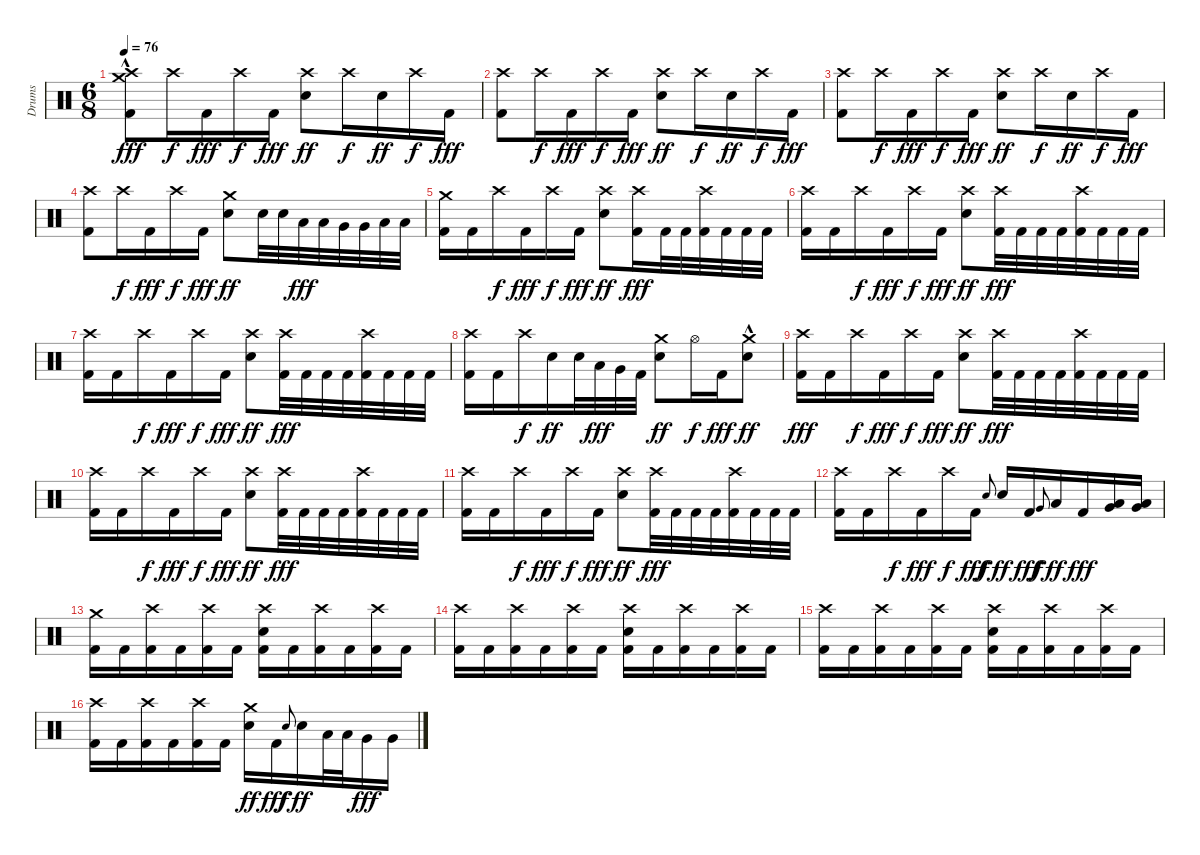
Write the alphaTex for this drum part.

\track ("Drums" "Drums") {instrument percussion}
\staff {score}
\articulation defaults
\ts (6 8)
\tempo 76
\clef neutral
\ks c
("Crash medium (hit)"{hac} "Crash high (hit)"{hac} "Kick (hit) 2"{hac}).8{dy fff} "Crash high (hit)".16{dy f} "Kick (hit) 2".16{dy fff} "Crash high (hit)".16{dy f} "Kick (hit) 2".16{dy fff} ("Crash high (hit)" "Snare (hit) 2").8{dy ff} "Crash high (hit)".16{dy f} "Snare (hit) 2".16{dy ff} "Crash high (hit)".16{dy f} "Kick (hit) 2".16{dy fff} |
("Crash high (hit)" "Kick (hit) 2").8 "Crash high (hit)".16{dy f} "Kick (hit) 2".16{dy fff} "Crash high (hit)".16{dy f} "Kick (hit) 2".16{dy fff} ("Crash high (hit)" "Snare (hit) 2").8{dy ff} "Crash high (hit)".16{dy f} "Snare (hit) 2".16{dy ff} "Crash high (hit)".16{dy f} "Kick (hit) 2".16{dy fff} |
("Crash high (hit)" "Kick (hit) 2").8 "Crash high (hit)".16{dy f} "Kick (hit) 2".16{dy fff} "Crash high (hit)".16{dy f} "Kick (hit) 2".16{dy fff} ("Crash high (hit)" "Snare (hit) 2").8{dy ff} "Crash high (hit)".16{dy f} "Snare (hit) 2".16{dy ff} "Crash high (hit)".16{dy f} "Kick (hit) 2".16{dy fff} |
("Crash high (hit)" "Kick (hit) 2").8 "Crash high (hit)".16{dy f} "Kick (hit) 2".16{dy fff} "Crash high (hit)".16{dy f} "Kick (hit) 2".16{dy fff} ("Crash medium (hit)" "Snare (hit) 2").8{dy ff} "Snare (hit) 2".32 "Snare (hit) 2".32 "Low Tom (hit)".32{dy fff} "Low Tom (hit)".32 "Very Low Tom (hit)".32 "Very Low Tom (hit)".32 "Low Floor Tom (hit)".32 "Low Floor Tom (hit)".32 |
("Crash medium (hit)" "Kick (hit) 2").16 "Kick (hit) 2".16 "Crash high (hit)".16{dy f} "Kick (hit) 2".16{dy fff} "Crash high (hit)".16{dy f} "Kick (hit) 2".16{dy fff} ("Crash high (hit)" "Snare (hit) 2").8{dy ff} ("Crash high (hit)" "Kick (hit) 2").16{dy fff} "Kick (hit) 2".32 "Kick (hit) 2".32 ("Crash high (hit)" "Kick (hit) 2").32 "Kick (hit) 2".32 "Kick (hit) 2".32 "Kick (hit) 2".32 |
("Crash high (hit)" "Kick (hit) 2").16 "Kick (hit) 2".16 "Crash high (hit)".16{dy f} "Kick (hit) 2".16{dy fff} "Crash high (hit)".16{dy f} "Kick (hit) 2".16{dy fff} ("Crash high (hit)" "Snare (hit) 2").8{dy ff} ("Crash high (hit)" "Kick (hit) 2").32{dy fff} "Kick (hit) 2".32 "Kick (hit) 2".32 "Kick (hit) 2".32 ("Crash high (hit)" "Kick (hit) 2").32 "Kick (hit) 2".32 "Kick (hit) 2".32 "Kick (hit) 2".32 |
("Crash high (hit)" "Kick (hit) 2").16 "Kick (hit) 2".16 "Crash high (hit)".16{dy f} "Kick (hit) 2".16{dy fff} "Crash high (hit)".16{dy f} "Kick (hit) 2".16{dy fff} ("Crash high (hit)" "Snare (hit) 2").8{dy ff} ("Crash high (hit)" "Kick (hit) 2").32{dy fff} "Kick (hit) 2".32 "Kick (hit) 2".32 "Kick (hit) 2".32 ("Crash high (hit)" "Kick (hit) 2").32 "Kick (hit) 2".32 "Kick (hit) 2".32 "Kick (hit) 2".32 |
("Crash high (hit)" "Kick (hit) 2").16 "Kick (hit) 2".16 "Crash high (hit)".16{dy f} "Snare (hit) 2".16{dy ff} "Snare (hit) 2".32 "Low Tom (hit)".32{dy fff} "Very Low Tom (hit)".32 "Kick (hit) 2".32 ("Crash medium (hit)" "Snare (hit) 2").8{dy ff} "Hi-Hat (open)".16{dy f} "Kick (hit) 2".16{dy fff} ("Crash medium (hit)"{hac} "Snare (hit) 2").8{dy ff} |
("Crash high (hit)" "Kick (hit) 2").16{dy fff} "Kick (hit) 2".16 "Crash high (hit)".16{dy f} "Kick (hit) 2".16{dy fff} "Crash high (hit)".16{dy f} "Kick (hit) 2".16{dy fff} ("Crash high (hit)" "Snare (hit) 2").8{dy ff} ("Crash high (hit)" "Kick (hit) 2").32{dy fff} "Kick (hit) 2".32 "Kick (hit) 2".32 "Kick (hit) 2".32 ("Crash high (hit)" "Kick (hit) 2").32 "Kick (hit) 2".32 "Kick (hit) 2".32 "Kick (hit) 2".32 |
("Crash high (hit)" "Kick (hit) 2").16 "Kick (hit) 2".16 "Crash high (hit)".16{dy f} "Kick (hit) 2".16{dy fff} "Crash high (hit)".16{dy f} "Kick (hit) 2".16{dy fff} ("Crash high (hit)" "Snare (hit) 2").8{dy ff} ("Crash high (hit)" "Kick (hit) 2").32{dy fff} "Kick (hit) 2".32 "Kick (hit) 2".32 "Kick (hit) 2".32 ("Crash high (hit)" "Kick (hit) 2").32 "Kick (hit) 2".32 "Kick (hit) 2".32 "Kick (hit) 2".32 |
("Crash high (hit)" "Kick (hit) 2").16 "Kick (hit) 2".16 "Crash high (hit)".16{dy f} "Kick (hit) 2".16{dy fff} "Crash high (hit)".16{dy f} "Kick (hit) 2".16{dy fff} ("Crash high (hit)" "Snare (hit) 2").8{dy ff} ("Crash high (hit)" "Kick (hit) 2").32{dy fff} "Kick (hit) 2".32 "Kick (hit) 2".32 "Kick (hit) 2".32 ("Crash high (hit)" "Kick (hit) 2").32 "Kick (hit) 2".32 "Kick (hit) 2".32 "Kick (hit) 2".32 |
("Crash high (hit)" "Kick (hit) 2").16 "Kick (hit) 2".16 "Crash high (hit)".16{dy f} "Kick (hit) 2".16{dy fff} "Crash high (hit)".16{dy f} "Kick (hit) 2".16{dy fff} "Snare (hit) 2".8{gr onbeat dy f} "Snare (hit) 2".16{dy ff} "Kick (hit) 2".16{dy fff} "Very Low Tom (hit)".8{gr onbeat dy f} "Low Tom (hit)".16{dy ff} "Kick (hit) 2".16{dy fff} ("Very Low Tom (hit)" "Low Floor Tom (hit)").16 ("Very Low Tom (hit)" "Low Floor Tom (hit)").16 |
("Crash medium (hit)" "Kick (hit) 2").16 "Kick (hit) 2".16 ("Crash high (hit)" "Kick (hit) 2").16 "Kick (hit) 2".16 ("Crash high (hit)" "Kick (hit) 2").16 "Kick (hit) 2".16 ("Crash high (hit)" "Snare (hit) 2" "Kick (hit) 2").16 "Kick (hit) 2".16 ("Crash high (hit)" "Kick (hit) 2").16 "Kick (hit) 2".16 ("Crash high (hit)" "Kick (hit) 2").16 "Kick (hit) 2".16 |
("Crash high (hit)" "Kick (hit) 2").16 "Kick (hit) 2".16 ("Crash high (hit)" "Kick (hit) 2").16 "Kick (hit) 2".16 ("Crash high (hit)" "Kick (hit) 2").16 "Kick (hit) 2".16 ("Crash high (hit)" "Snare (hit) 2" "Kick (hit) 2").16 "Kick (hit) 2".16 ("Crash high (hit)" "Kick (hit) 2").16 "Kick (hit) 2".16 ("Crash high (hit)" "Kick (hit) 2").16 "Kick (hit) 2".16 |
("Crash high (hit)" "Kick (hit) 2").16 "Kick (hit) 2".16 ("Crash high (hit)" "Kick (hit) 2").16 "Kick (hit) 2".16 ("Crash high (hit)" "Kick (hit) 2").16 "Kick (hit) 2".16 ("Crash high (hit)" "Snare (hit) 2" "Kick (hit) 2").16 "Kick (hit) 2".16 ("Crash high (hit)" "Kick (hit) 2").16 "Kick (hit) 2".16 ("Crash high (hit)" "Kick (hit) 2").16 "Kick (hit) 2".16 |
("Crash high (hit)" "Kick (hit) 2").16 "Kick (hit) 2".16 ("Crash high (hit)" "Kick (hit) 2").16 "Kick (hit) 2".16 ("Crash high (hit)" "Kick (hit) 2").16 "Kick (hit) 2".16 ("Crash medium (hit)" "Snare (hit) 2").16{dy ff} "Kick (hit) 2".16{dy fff} "Snare (hit) 2".8{gr onbeat dy f} "Snare (hit) 2".16{dy ff} "Low Tom (hit)".32 "Low Tom (hit)".32 "Very Low Tom (hit)".16{dy fff} "Very Low Tom (hit)".16
